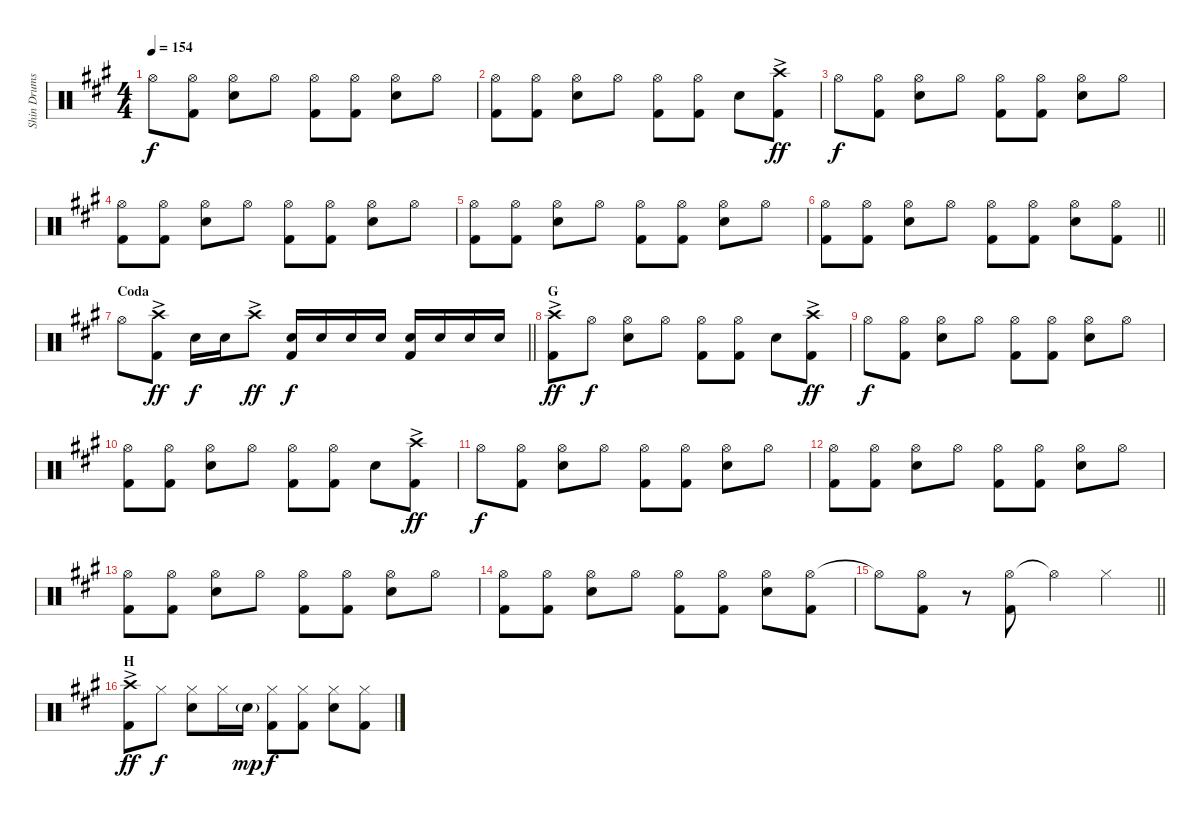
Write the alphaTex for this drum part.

\track ("Shin Drums" "Shin Drums") {instrument percussion}
\staff {score}
\articulation defaults
\ts (4 4)
\tempo 154
\clef neutral
\ks a "Hi-Hat (open)".8{dy f}
("Hi-Hat (open)" "Kick (hit) 2").8 ("Hi-Hat (open)" "Snare (hit) 2").8 "Hi-Hat (open)".8 ("Hi-Hat (open)" "Kick (hit) 2").8 ("Hi-Hat (open)" "Kick (hit) 2").8 ("Hi-Hat (open)" "Snare (hit) 2").8 "Hi-Hat (open)".8 |
("Hi-Hat (open)" "Kick (hit) 2").8 ("Hi-Hat (open)" "Kick (hit) 2").8 ("Hi-Hat (open)" "Snare (hit) 2").8 "Hi-Hat (open)".8 ("Hi-Hat (open)" "Kick (hit) 2").8 ("Hi-Hat (open)" "Kick (hit) 2").8 "Snare (hit) 2".8 ("Crash high (hit)"{ac} "Kick (hit) 2").8{dy ff} |
"Hi-Hat (open)".8{dy f} ("Hi-Hat (open)" "Kick (hit) 2").8 ("Hi-Hat (open)" "Snare (hit) 2").8 "Hi-Hat (open)".8 ("Hi-Hat (open)" "Kick (hit) 2").8 ("Hi-Hat (open)" "Kick (hit) 2").8 ("Hi-Hat (open)" "Snare (hit) 2").8 "Hi-Hat (open)".8 |
("Hi-Hat (open)" "Kick (hit) 2").8 ("Hi-Hat (open)" "Kick (hit) 2").8 ("Hi-Hat (open)" "Snare (hit) 2").8 "Hi-Hat (open)".8 ("Hi-Hat (open)" "Kick (hit) 2").8 ("Hi-Hat (open)" "Kick (hit) 2").8 ("Hi-Hat (open)" "Snare (hit) 2").8 "Hi-Hat (open)".8 |
("Hi-Hat (open)" "Kick (hit) 2").8 ("Hi-Hat (open)" "Kick (hit) 2").8 ("Hi-Hat (open)" "Snare (hit) 2").8 "Hi-Hat (open)".8 ("Hi-Hat (open)" "Kick (hit) 2").8 ("Hi-Hat (open)" "Kick (hit) 2").8 ("Hi-Hat (open)" "Snare (hit) 2").8 "Hi-Hat (open)".8 |
\barLineRight lightlight
("Hi-Hat (open)" "Kick (hit) 2").8 ("Hi-Hat (open)" "Kick (hit) 2").8 ("Hi-Hat (open)" "Snare (hit) 2").8 "Hi-Hat (open)".8 ("Hi-Hat (open)" "Kick (hit) 2").8 ("Hi-Hat (open)" "Kick (hit) 2").8 ("Hi-Hat (open)" "Snare (hit) 2").8 ("Hi-Hat (open)" "Kick (hit) 2").8 |
\section ("" "Coda")
\barLineRight lightlight "Hi-Hat (open)".8
("Crash high (hit)"{ac} "Kick (hit) 2").8{dy ff} "Snare (hit) 2".16{dy f} "Snare (hit) 2".16 "Crash high (hit)"{ac}.8{dy ff} ("Snare (hit) 2" "Kick (hit) 2").16{dy f} "Snare (hit) 2".16 "Snare (hit) 2".16 "Snare (hit) 2".16 ("Snare (hit) 2" "Kick (hit) 2").16 "Snare (hit) 2".16 "Snare (hit) 2".16 "Snare (hit) 2".16 |
\section ("" "G")
("Crash high (hit)"{ac} "Kick (hit) 2").8{dy ff} "Hi-Hat (open)".8{dy f} ("Hi-Hat (open)" "Snare (hit) 2").8 "Hi-Hat (open)".8 ("Hi-Hat (open)" "Kick (hit) 2").8 ("Hi-Hat (open)" "Kick (hit) 2").8 "Snare (hit) 2".8 ("Crash high (hit)"{ac} "Kick (hit) 2").8{dy ff} |
"Hi-Hat (open)".8{dy f} ("Hi-Hat (open)" "Kick (hit) 2").8 ("Hi-Hat (open)" "Snare (hit) 2").8 "Hi-Hat (open)".8 ("Hi-Hat (open)" "Kick (hit) 2").8 ("Hi-Hat (open)" "Kick (hit) 2").8 ("Hi-Hat (open)" "Snare (hit) 2").8 "Hi-Hat (open)".8 |
("Hi-Hat (open)" "Kick (hit) 2").8 ("Hi-Hat (open)" "Kick (hit) 2").8 ("Hi-Hat (open)" "Snare (hit) 2").8 "Hi-Hat (open)".8 ("Hi-Hat (open)" "Kick (hit) 2").8 ("Hi-Hat (open)" "Kick (hit) 2").8 "Snare (hit) 2".8 ("Crash high (hit)"{ac} "Kick (hit) 2").8{dy ff} |
"Hi-Hat (open)".8{dy f} ("Hi-Hat (open)" "Kick (hit) 2").8 ("Hi-Hat (open)" "Snare (hit) 2").8 "Hi-Hat (open)".8 ("Hi-Hat (open)" "Kick (hit) 2").8 ("Hi-Hat (open)" "Kick (hit) 2").8 ("Hi-Hat (open)" "Snare (hit) 2").8 "Hi-Hat (open)".8 |
("Hi-Hat (open)" "Kick (hit) 2").8 ("Hi-Hat (open)" "Kick (hit) 2").8 ("Hi-Hat (open)" "Snare (hit) 2").8 "Hi-Hat (open)".8 ("Hi-Hat (open)" "Kick (hit) 2").8 ("Hi-Hat (open)" "Kick (hit) 2").8 ("Hi-Hat (open)" "Snare (hit) 2").8 "Hi-Hat (open)".8 |
("Hi-Hat (open)" "Kick (hit) 2").8 ("Hi-Hat (open)" "Kick (hit) 2").8 ("Hi-Hat (open)" "Snare (hit) 2").8 "Hi-Hat (open)".8 ("Hi-Hat (open)" "Kick (hit) 2").8 ("Hi-Hat (open)" "Kick (hit) 2").8 ("Hi-Hat (open)" "Snare (hit) 2").8 "Hi-Hat (open)".8 |
("Hi-Hat (open)" "Kick (hit) 2").8 ("Hi-Hat (open)" "Kick (hit) 2").8 ("Hi-Hat (open)" "Snare (hit) 2").8 "Hi-Hat (open)".8 ("Hi-Hat (open)" "Kick (hit) 2").8 ("Hi-Hat (open)" "Kick (hit) 2").8 ("Hi-Hat (open)" "Snare (hit) 2").8 ("Hi-Hat (open)" "Kick (hit) 2").8 |
\barLineRight lightlight "Hi-Hat (open)"{t}.8
("Hi-Hat (open)" "Kick (hit) 2").8 r.8 ("Hi-Hat (open)" "Kick (hit) 2").8 "Hi-Hat (open)"{t}.4 "Hi-Hat (closed)".4 |
\section ("" "H")
("Crash high (hit)"{ac} "Kick (hit) 2").8{dy ff} "Hi-Hat (closed)".8{dy f} ("Hi-Hat (closed)" "Snare (hit) 2").8 "Hi-Hat (closed)".16 "Snare (hit) 2"{g}.16{dy mp} ("Hi-Hat (closed)" "Kick (hit) 2").8{dy f} ("Hi-Hat (closed)" "Kick (hit) 2").8 ("Hi-Hat (closed)" "Snare (hit) 2").8 ("Hi-Hat (closed)" "Kick (hit) 2").8
